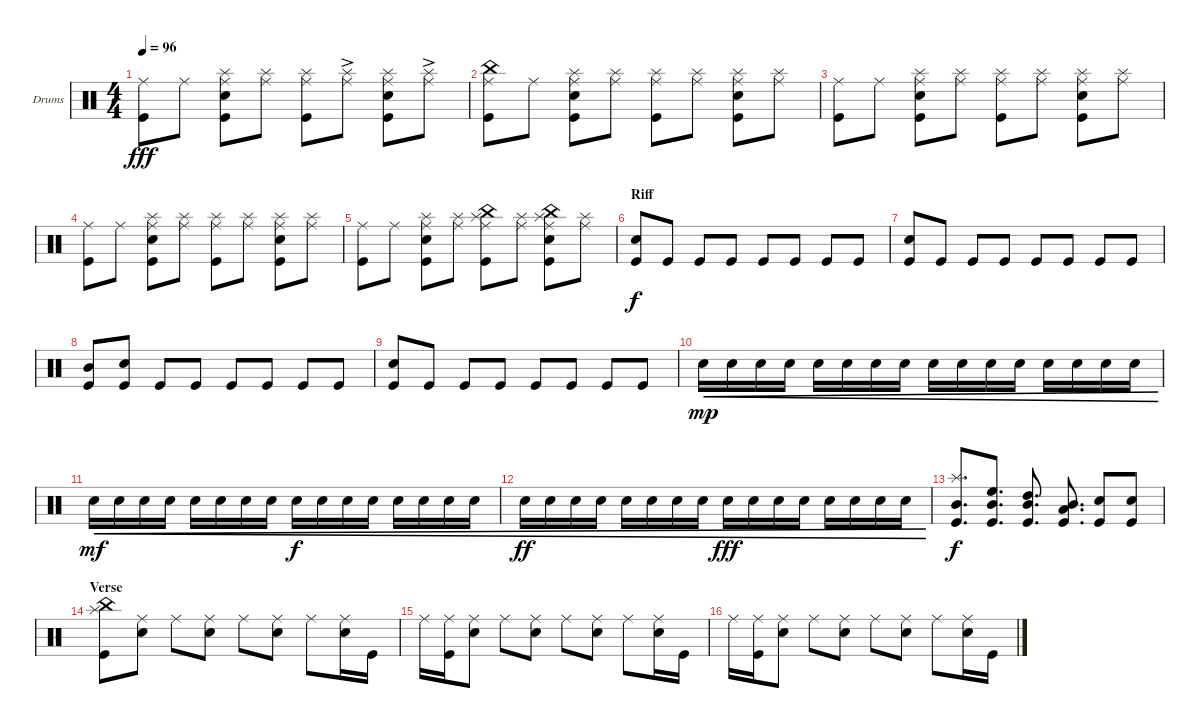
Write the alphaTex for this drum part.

\defaultSystemsLayout 4
\bracketExtendMode groupsimilarinstruments
\firstSystemTrackNameOrientation horizontal
\otherSystemsTrackNameOrientation horizontal
\track ("Howard" "Drums") {instrument percussion}
\staff {score}
\articulation defaults
\ts (4 4)
\tempo 96
\clef neutral
\ks c
("Kick (hit)" "Ride (middle)").8{dy fff} "Ride (middle)".8 ("Splash (hit)" "Ride (middle)" "Kick (hit)" "Snare (hit) 2").8 ("Splash (hit)" "Ride (middle)").8 ("Splash (hit)" "Kick (hit)" "Ride (middle)").8 ("Splash (hit)" "Ride (middle)"{ac}).8 ("Splash (hit)" "Kick (hit)" "Snare (hit) 2" "Ride (middle)").8 ("Splash (hit)" "Ride (middle)"{ac}).8 |
("China (hit)" "Kick (hit)" "Ride (middle)").8 "Ride (middle)".8 ("Splash (hit)" "Ride (middle)" "Kick (hit)" "Snare (hit) 2").8 ("Splash (hit)" "Ride (middle)").8 ("Splash (hit)" "Kick (hit)" "Ride (middle)").8 ("Splash (hit)" "Ride (middle)").8 ("Splash (hit)" "Kick (hit)" "Snare (hit) 2" "Ride (middle)").8 ("Splash (hit)" "Ride (middle)").8 |
("Kick (hit)" "Ride (middle)").8 "Ride (middle)".8 ("Splash (hit)" "Ride (middle)" "Kick (hit)" "Snare (hit) 2").8 ("Splash (hit)" "Ride (middle)").8 ("Splash (hit)" "Kick (hit)" "Ride (middle)").8 ("Splash (hit)" "Ride (middle)").8 ("Splash (hit)" "Kick (hit)" "Snare (hit) 2" "Ride (middle)").8 ("Splash (hit)" "Ride (middle)").8 |
("Kick (hit)" "Ride (middle)").8 "Ride (middle)".8 ("Splash (hit)" "Ride (middle)" "Kick (hit)" "Snare (hit) 2").8 ("Splash (hit)" "Ride (middle)").8 ("Splash (hit)" "Kick (hit)" "Ride (middle)").8 ("Splash (hit)" "Ride (middle)").8 ("Splash (hit)" "Kick (hit)" "Snare (hit) 2" "Ride (middle)").8 ("Splash (hit)" "Ride (middle)").8 |
("Kick (hit)" "Ride (middle)").8 "Ride (middle)".8 ("Splash (hit)" "Ride (middle)" "Kick (hit)" "Snare (hit) 2").8 ("Splash (hit)" "Ride (middle)").8 ("Splash (hit)" "Kick (hit)" "Ride (middle)" "China (hit)").8 ("Splash (hit)" "Ride (middle)").8 ("Splash (hit)" "Kick (hit)" "Snare (hit) 2" "Ride (middle)" "China (hit)").8 ("Splash (hit)" "Ride (middle)").8 |
\section ("" "Riff")
("Kick (hit)" "Snare (hit) 2").8{dy f} "Kick (hit)".8 "Kick (hit)".8 "Kick (hit)".8 "Kick (hit)".8 "Kick (hit)".8 "Kick (hit)".8 "Kick (hit)".8 |
("Kick (hit)" "Snare (hit) 2").8 "Kick (hit)".8 "Kick (hit)".8 "Kick (hit)".8 "Kick (hit)".8 "Kick (hit)".8 "Kick (hit)".8 "Kick (hit)".8 |
("Kick (hit)" "Mid Tom (hit)").8 ("Kick (hit)" "Snare (hit) 2").8 "Kick (hit)".8 "Kick (hit)".8 "Kick (hit)".8 "Kick (hit)".8 "Kick (hit)".8 "Kick (hit)".8 |
("Kick (hit)" "Snare (hit) 2").8 "Kick (hit)".8 "Kick (hit)".8 "Kick (hit)".8 "Kick (hit)".8 "Kick (hit)".8 "Kick (hit)".8 "Kick (hit)".8 |
"Snare (hit) 2".16{cre dy mp} "Snare (hit) 2".16{cre} "Snare (hit) 2".16{cre} "Snare (hit) 2".16{cre} "Snare (hit) 2".16{cre} "Snare (hit) 2".16{cre} "Snare (hit) 2".16{cre} "Snare (hit) 2".16{cre} "Snare (hit) 2".16{cre} "Snare (hit) 2".16{cre} "Snare (hit) 2".16{cre} "Snare (hit) 2".16{cre} "Snare (hit) 2".16{cre} "Snare (hit) 2".16{cre} "Snare (hit) 2".16{cre} "Snare (hit) 2".16{cre} |
"Snare (hit) 2".16{cre dy mf} "Snare (hit) 2".16{cre} "Snare (hit) 2".16{cre} "Snare (hit) 2".16{cre} "Snare (hit) 2".16{cre} "Snare (hit) 2".16{cre} "Snare (hit) 2".16{cre} "Snare (hit) 2".16{cre} "Snare (hit) 2".16{cre dy f} "Snare (hit) 2".16{cre} "Snare (hit) 2".16{cre} "Snare (hit) 2".16{cre} "Snare (hit) 2".16{cre} "Snare (hit) 2".16{cre} "Snare (hit) 2".16{cre} "Snare (hit) 2".16{cre} |
"Snare (hit) 2".16{cre dy ff} "Snare (hit) 2".16{cre} "Snare (hit) 2".16{cre} "Snare (hit) 2".16{cre} "Snare (hit) 2".16{cre} "Snare (hit) 2".16{cre} "Snare (hit) 2".16{cre} "Snare (hit) 2".16{cre} "Snare (hit) 2".16{cre dy fff} "Snare (hit) 2".16{cre} "Snare (hit) 2".16{cre} "Snare (hit) 2".16{cre} "Snare (hit) 2".16{cre} "Snare (hit) 2".16{cre} "Snare (hit) 2".16{cre} "Snare (hit) 2".16{cre} |
("Kick (hit)" "Splash (hit)" "Mid Tom (hit)").8{d dy f} ("Kick (hit)" "High Floor Tom (hit)" "Mid Tom (hit)").8{d} ("Kick (hit)" "High Tom (hit)" "Mid Tom (hit)").8{d} ("Kick (hit)" "Mid Tom (hit)" "Low Tom (hit)").8{d} ("Kick (hit)" "Snare (hit) 2").8 ("Kick (hit)" "Snare (hit) 2").8 |
\section ("" "Verse")
("China (hit)" "Splash (hit)" "Kick (hit)").8 ("Ride (middle)" "Snare (hit) 2").8 "Ride (middle)".8 ("Ride (middle)" "Snare (hit) 2").8 "Ride (middle)".8 ("Ride (middle)" "Snare (hit) 2").8 "Ride (middle)".8 ("Ride (middle)" "Snare (hit) 2").16 "Kick (hit)".16 |
"Ride (middle)".16 ("Ride (middle)" "Kick (hit)").16 ("Ride (middle)" "Snare (hit) 2").8 "Ride (middle)".8 ("Ride (middle)" "Snare (hit) 2").8 "Ride (middle)".8 ("Ride (middle)" "Snare (hit) 2").8 "Ride (middle)".8 ("Ride (middle)" "Snare (hit) 2").16 "Kick (hit)".16 |
"Ride (middle)".16 ("Ride (middle)" "Kick (hit)").16 ("Ride (middle)" "Snare (hit) 2").8 "Ride (middle)".8 ("Ride (middle)" "Snare (hit) 2").8 "Ride (middle)".8 ("Ride (middle)" "Snare (hit) 2").8 "Ride (middle)".8 ("Ride (middle)" "Snare (hit) 2").16 "Kick (hit)".16
